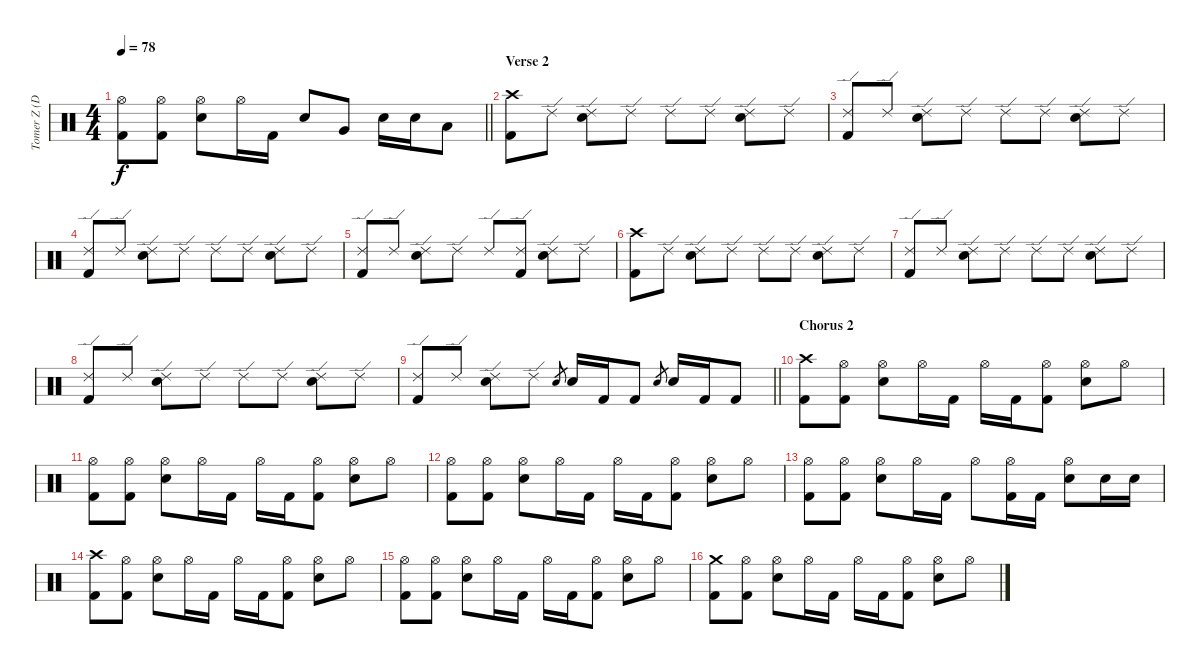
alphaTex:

\track ("Tomer Z (Drums)" "Tomer Z (D") {instrument percussion}
\staff {score}
\articulation defaults
\ts (4 4)
\tempo 78
\clef neutral
\barLineRight lightlight
\ks c
("Hi-Hat (open)" "Kick (hit) 2").8{dy f} ("Hi-Hat (open)" "Kick (hit) 2").8 ("Hi-Hat (open)" "Snare (hit) 2").8 "Hi-Hat (open)".16 "Kick (hit) 2".16 "Snare (hit) 2".8 "Very Low Tom (hit)".8 "Snare (hit) 2".16 "Snare (hit) 2".16 "Low Floor Tom (hit)".8 |
\section ("" "Verse 2")
("Crash high (hit)" "Kick (hit) 2").8 "Ride (edge) 2".8 ("Ride (edge) 2" "Snare (hit) 2").8 "Ride (edge) 2".8 "Ride (edge) 2".8 "Ride (edge) 2".8 ("Ride (edge) 2" "Snare (hit) 2").8 "Ride (edge) 2".8 |
("Ride (edge) 2" "Kick (hit) 2").8 "Ride (edge) 2".8 ("Ride (edge) 2" "Snare (hit) 2").8 "Ride (edge) 2".8 "Ride (edge) 2".8 "Ride (edge) 2".8 ("Ride (edge) 2" "Snare (hit) 2").8 "Ride (edge) 2".8 |
("Ride (edge) 2" "Kick (hit) 2").8 "Ride (edge) 2".8 ("Ride (edge) 2" "Snare (hit) 2").8 "Ride (edge) 2".8 "Ride (edge) 2".8 "Ride (edge) 2".8 ("Ride (edge) 2" "Snare (hit) 2").8 "Ride (edge) 2".8 |
("Ride (edge) 2" "Kick (hit) 2").8 "Ride (edge) 2".8 ("Ride (edge) 2" "Snare (hit) 2").8 "Ride (edge) 2".8 "Ride (edge) 2".8 ("Ride (edge) 2" "Kick (hit) 2").8 ("Ride (edge) 2" "Snare (hit) 2").8 "Ride (edge) 2".8 |
("Crash high (hit)" "Kick (hit) 2").8 "Ride (edge) 2".8 ("Ride (edge) 2" "Snare (hit) 2").8 "Ride (edge) 2".8 "Ride (edge) 2".8 "Ride (edge) 2".8 ("Ride (edge) 2" "Snare (hit) 2").8 "Ride (edge) 2".8 |
("Ride (edge) 2" "Kick (hit) 2").8 "Ride (edge) 2".8 ("Ride (edge) 2" "Snare (hit) 2").8 "Ride (edge) 2".8 "Ride (edge) 2".8 "Ride (edge) 2".8 ("Ride (edge) 2" "Snare (hit) 2").8 "Ride (edge) 2".8 |
("Ride (edge) 2" "Kick (hit) 2").8 "Ride (edge) 2".8 ("Ride (edge) 2" "Snare (hit) 2").8 "Ride (edge) 2".8 "Ride (edge) 2".8 "Ride (edge) 2".8 ("Ride (edge) 2" "Snare (hit) 2").8 "Ride (edge) 2".8 |
\barLineRight lightlight
("Ride (edge) 2" "Kick (hit) 2").8 "Ride (edge) 2".8 ("Ride (edge) 2" "Snare (hit) 2").8 "Ride (edge) 2".8 "Snare (hit) 2".8{gr} "Snare (hit) 2".16 "Kick (hit) 2".16 "Kick (hit) 2".8 "Snare (hit) 2".8{gr} "Snare (hit) 2".16 "Kick (hit) 2".16 "Kick (hit) 2".8 |
\section ("" "Chorus 2")
("Crash high (hit)" "Kick (hit) 2").8 ("Hi-Hat (open)" "Kick (hit) 2").8 ("Hi-Hat (open)" "Snare (hit) 2").8 "Hi-Hat (open)".16 "Kick (hit) 2".16 "Hi-Hat (open)".16 "Kick (hit) 2".16 ("Hi-Hat (open)" "Kick (hit) 2").8 ("Hi-Hat (open)" "Snare (hit) 2").8 "Hi-Hat (open)".8 |
("Hi-Hat (open)" "Kick (hit) 2").8 ("Hi-Hat (open)" "Kick (hit) 2").8 ("Hi-Hat (open)" "Snare (hit) 2").8 "Hi-Hat (open)".16 "Kick (hit) 2".16 "Hi-Hat (open)".16 "Kick (hit) 2".16 ("Hi-Hat (open)" "Kick (hit) 2").8 ("Hi-Hat (open)" "Snare (hit) 2").8 "Hi-Hat (open)".8 |
("Hi-Hat (open)" "Kick (hit) 2").8 ("Hi-Hat (open)" "Kick (hit) 2").8 ("Hi-Hat (open)" "Snare (hit) 2").8 "Hi-Hat (open)".16 "Kick (hit) 2".16 "Hi-Hat (open)".16 "Kick (hit) 2".16 ("Hi-Hat (open)" "Kick (hit) 2").8 ("Hi-Hat (open)" "Snare (hit) 2").8 "Hi-Hat (open)".8 |
("Hi-Hat (open)" "Kick (hit) 2").8 ("Hi-Hat (open)" "Kick (hit) 2").8 ("Hi-Hat (open)" "Snare (hit) 2").8 "Hi-Hat (open)".16 "Kick (hit) 2".16 "Hi-Hat (open)".8 ("Hi-Hat (open)" "Kick (hit) 2").16 "Kick (hit) 2".16 ("Hi-Hat (open)" "Snare (hit) 2").8 "Snare (hit) 2".16 "Snare (hit) 2".16 |
("Crash high (hit)" "Kick (hit) 2").8 ("Hi-Hat (open)" "Kick (hit) 2").8 ("Hi-Hat (open)" "Snare (hit) 2").8 "Hi-Hat (open)".16 "Kick (hit) 2".16 "Hi-Hat (open)".16 "Kick (hit) 2".16 ("Hi-Hat (open)" "Kick (hit) 2").8 ("Hi-Hat (open)" "Snare (hit) 2").8 "Hi-Hat (open)".8 |
("Hi-Hat (open)" "Kick (hit) 2").8 ("Hi-Hat (open)" "Kick (hit) 2").8 ("Hi-Hat (open)" "Snare (hit) 2").8 "Hi-Hat (open)".16 "Kick (hit) 2".16 "Hi-Hat (open)".16 "Kick (hit) 2".16 ("Hi-Hat (open)" "Kick (hit) 2").8 ("Hi-Hat (open)" "Snare (hit) 2").8 "Hi-Hat (open)".8 |
("Crash medium (hit)" "Kick (hit) 2").8 ("Hi-Hat (open)" "Kick (hit) 2").8 ("Hi-Hat (open)" "Snare (hit) 2").8 "Hi-Hat (open)".16 "Kick (hit) 2".16 "Hi-Hat (open)".16 "Kick (hit) 2".16 ("Hi-Hat (open)" "Kick (hit) 2").8 ("Hi-Hat (open)" "Snare (hit) 2").8 "Hi-Hat (open)".8
